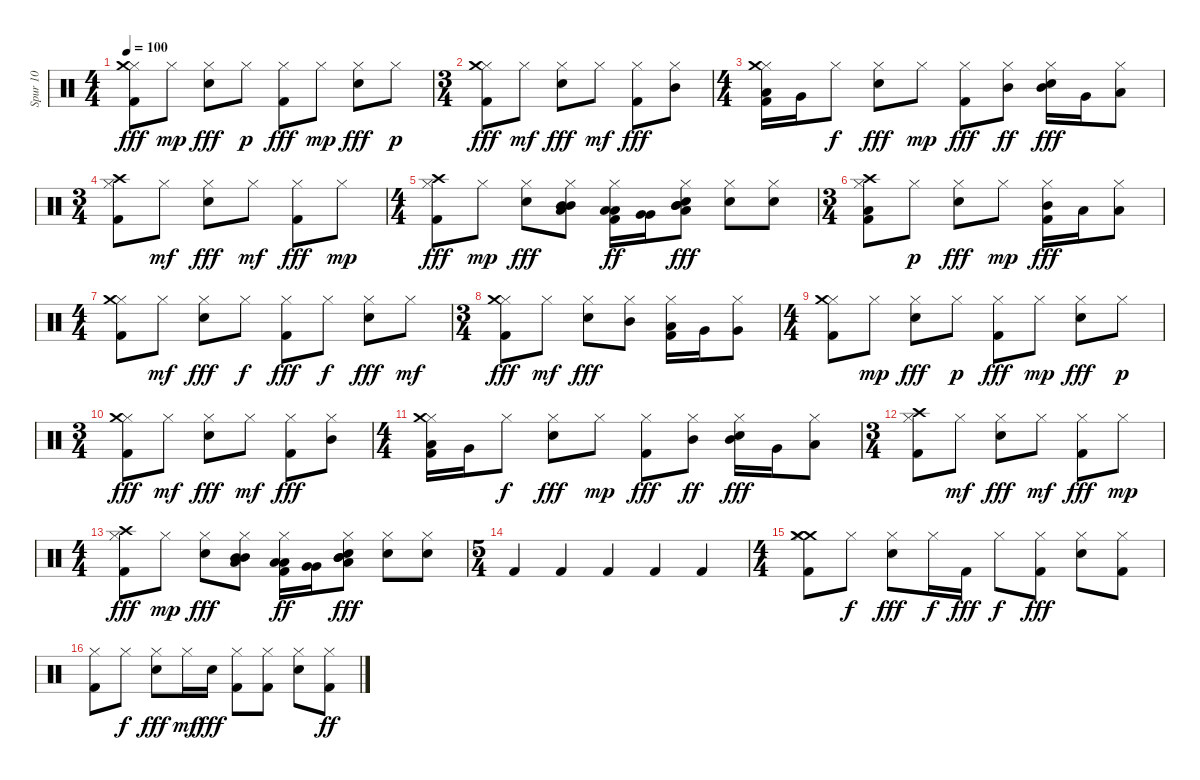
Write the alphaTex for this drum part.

\track ("Spur 10" "Spur 10") {instrument percussion}
\staff {score}
\articulation defaults
\ts (4 4)
\tempo 100
\clef neutral
\ks c
("Hi-Hat (closed)" "Crash medium (hit)" "Kick (hit) 2").8{dy fff} "Hi-Hat (closed)".8{dy mp} ("Hi-Hat (closed)" "Metronome (bell)").8{dy fff} "Hi-Hat (closed)".8{dy p} ("Hi-Hat (closed)" "Kick (hit) 2").8{dy fff} "Hi-Hat (closed)".8{dy mp} ("Hi-Hat (closed)" "Metronome (bell)").8{dy fff} "Hi-Hat (closed)".8{dy p} |
\ts (3 4)
("Hi-Hat (closed)" "Crash medium (hit)" "Kick (hit) 2").8{dy fff} "Hi-Hat (closed)".8{dy mf} ("Hi-Hat (closed)" "Metronome (bell)").8{dy fff} "Hi-Hat (closed)".8{dy mf} ("Hi-Hat (closed)" "Kick (hit) 2").8{dy fff} ("Hi-Hat (closed)" "Mid Tom (hit)").8 |
\ts (4 4)
("Hi-Hat (closed)" "Crash medium (hit)" "Low Tom (hit)" "Kick (hit) 2").16 "Very Low Tom (hit)".16 "Hi-Hat (closed)".8{dy f} ("Hi-Hat (closed)" "Metronome (bell)").8{dy fff} "Hi-Hat (closed)".8{dy mp} ("Hi-Hat (closed)" "Kick (hit) 2").8{dy fff} ("Hi-Hat (closed)" "Mid Tom (hit)").8{dy ff} ("Hi-Hat (closed)" "Mid Tom (hit)" "Metronome (bell)").16{dy fff} "Very Low Tom (hit)".16 ("Hi-Hat (closed)" "Low Tom (hit)").8 |
\ts (3 4)
("Hi-Hat (closed)" "Kick (hit) 2" "Crash high (hit)").8 "Hi-Hat (closed)".8{dy mf} ("Hi-Hat (closed)" "Metronome (bell)").8{dy fff} "Hi-Hat (closed)".8{dy mf} ("Hi-Hat (closed)" "Kick (hit) 2").8{dy fff} "Hi-Hat (closed)".8{dy mp} |
\ts (4 4)
("Hi-Hat (closed)" "Kick (hit) 2" "Crash high (hit)").8{dy fff} "Hi-Hat (closed)".8{dy mp} ("Hi-Hat (closed)" "Metronome (bell)").8{dy fff} ("Hi-Hat (closed)" "Low Tom (hit)" "Mid Tom (hit)" "Mid Tom (hit)").8 ("Hi-Hat (closed)" "Low Tom (hit)" "Low Tom (hit)" "Kick (hit) 2").16{dy ff} ("Very Low Tom (hit)" "Very Low Tom (hit)").16 ("Hi-Hat (closed)" "Mid Tom (hit)" "Mid Tom (hit)" "Low Tom (hit)" "Metronome (bell)").8{dy fff} ("Hi-Hat (closed)" "Metronome (bell)").8 ("Hi-Hat (closed)" "Metronome (bell)").8 |
\ts (3 4)
("Hi-Hat (closed)" "Crash high (hit)" "Kick (hit) 2" "Low Tom (hit)").8 "Hi-Hat (closed)".8{dy p} ("Hi-Hat (closed)" "Metronome (bell)").8{dy fff} "Hi-Hat (closed)".8{dy mp} ("Hi-Hat (closed)" "Kick (hit) 2" "Mid Tom (hit)").16{dy fff} "Low Tom (hit)".16 ("Hi-Hat (closed)" "Low Tom (hit)").8 |
\ts (4 4)
("Hi-Hat (closed)" "Kick (hit) 2" "Crash medium (hit)").8 "Hi-Hat (closed)".8{dy mf} ("Hi-Hat (closed)" "Metronome (bell)").8{dy fff} "Hi-Hat (closed)".8{dy f} ("Hi-Hat (closed)" "Kick (hit) 2").8{dy fff} "Hi-Hat (closed)".8{dy f} ("Hi-Hat (closed)" "Metronome (bell)").8{dy fff} "Hi-Hat (closed)".8{dy mf} |
\ts (3 4)
("Hi-Hat (closed)" "Kick (hit) 2" "Crash medium (hit)").8{dy fff} "Hi-Hat (closed)".8{dy mf} ("Hi-Hat (closed)" "Metronome (bell)").8{dy fff} ("Hi-Hat (closed)" "Mid Tom (hit)").8 ("Hi-Hat (closed)" "Kick (hit) 2" "Low Tom (hit)").16 "Very Low Tom (hit)".16 ("Hi-Hat (closed)" "Very Low Tom (hit)").8 |
\ts (4 4)
("Hi-Hat (closed)" "Crash medium (hit)" "Kick (hit) 2").8 "Hi-Hat (closed)".8{dy mp} ("Hi-Hat (closed)" "Metronome (bell)").8{dy fff} "Hi-Hat (closed)".8{dy p} ("Hi-Hat (closed)" "Kick (hit) 2").8{dy fff} "Hi-Hat (closed)".8{dy mp} ("Hi-Hat (closed)" "Metronome (bell)").8{dy fff} "Hi-Hat (closed)".8{dy p} |
\ts (3 4)
("Hi-Hat (closed)" "Crash medium (hit)" "Kick (hit) 2").8{dy fff} "Hi-Hat (closed)".8{dy mf} ("Hi-Hat (closed)" "Metronome (bell)").8{dy fff} "Hi-Hat (closed)".8{dy mf} ("Hi-Hat (closed)" "Kick (hit) 2").8{dy fff} ("Hi-Hat (closed)" "Mid Tom (hit)").8 |
\ts (4 4)
("Hi-Hat (closed)" "Crash medium (hit)" "Low Tom (hit)" "Kick (hit) 2").16 "Very Low Tom (hit)".16 "Hi-Hat (closed)".8{dy f} ("Hi-Hat (closed)" "Metronome (bell)").8{dy fff} "Hi-Hat (closed)".8{dy mp} ("Hi-Hat (closed)" "Kick (hit) 2").8{dy fff} ("Hi-Hat (closed)" "Mid Tom (hit)").8{dy ff} ("Hi-Hat (closed)" "Mid Tom (hit)" "Metronome (bell)").16{dy fff} "Very Low Tom (hit)".16 ("Hi-Hat (closed)" "Low Tom (hit)").8 |
\ts (3 4)
("Hi-Hat (closed)" "Kick (hit) 2" "Crash high (hit)").8 "Hi-Hat (closed)".8{dy mf} ("Hi-Hat (closed)" "Metronome (bell)").8{dy fff} "Hi-Hat (closed)".8{dy mf} ("Hi-Hat (closed)" "Kick (hit) 2").8{dy fff} "Hi-Hat (closed)".8{dy mp} |
\ts (4 4)
("Hi-Hat (closed)" "Kick (hit) 2" "Crash high (hit)").8{dy fff} "Hi-Hat (closed)".8{dy mp} ("Hi-Hat (closed)" "Metronome (bell)").8{dy fff} ("Hi-Hat (closed)" "Low Tom (hit)" "Mid Tom (hit)" "Mid Tom (hit)").8 ("Hi-Hat (closed)" "Low Tom (hit)" "Low Tom (hit)" "Kick (hit) 2").16{dy ff} ("Very Low Tom (hit)" "Very Low Tom (hit)").16 ("Hi-Hat (closed)" "Mid Tom (hit)" "Mid Tom (hit)" "Low Tom (hit)" "Metronome (bell)").8{dy fff} ("Hi-Hat (closed)" "Metronome (bell)").8 ("Hi-Hat (closed)" "Metronome (bell)").8 |
\ts (5 4)
"Kick (hit) 2".4 "Kick (hit) 2".4 "Kick (hit) 2".4 "Kick (hit) 2".4 "Kick (hit) 2".4 |
\ts (4 4)
("Crash medium (hit)" "Hi-Hat (closed)" "Kick (hit) 2" "Crash medium (hit)").8 "Hi-Hat (closed)".8{dy f} ("Hi-Hat (closed)" "Metronome (bell)").8{dy fff} "Hi-Hat (closed)".16{dy f} "Kick (hit) 2".16{dy fff} "Hi-Hat (closed)".8{dy f} ("Hi-Hat (closed)" "Kick (hit) 2").8{dy fff} ("Hi-Hat (closed)" "Metronome (bell)").8 ("Hi-Hat (closed)" "Kick (hit) 2").8 |
("Hi-Hat (closed)" "Kick (hit) 2").8 "Hi-Hat (closed)".8{dy f} ("Hi-Hat (closed)" "Metronome (bell)").8{dy fff} "Hi-Hat (closed)".16{dy mf} "Metronome (bell)".16{dy fff} ("Hi-Hat (closed)" "Kick (hit) 2").8 ("Hi-Hat (closed)" "Kick (hit) 2").8 ("Hi-Hat (closed)" "Metronome (bell)").8 ("Hi-Hat (closed)" "Kick (hit) 2").8{dy ff}
